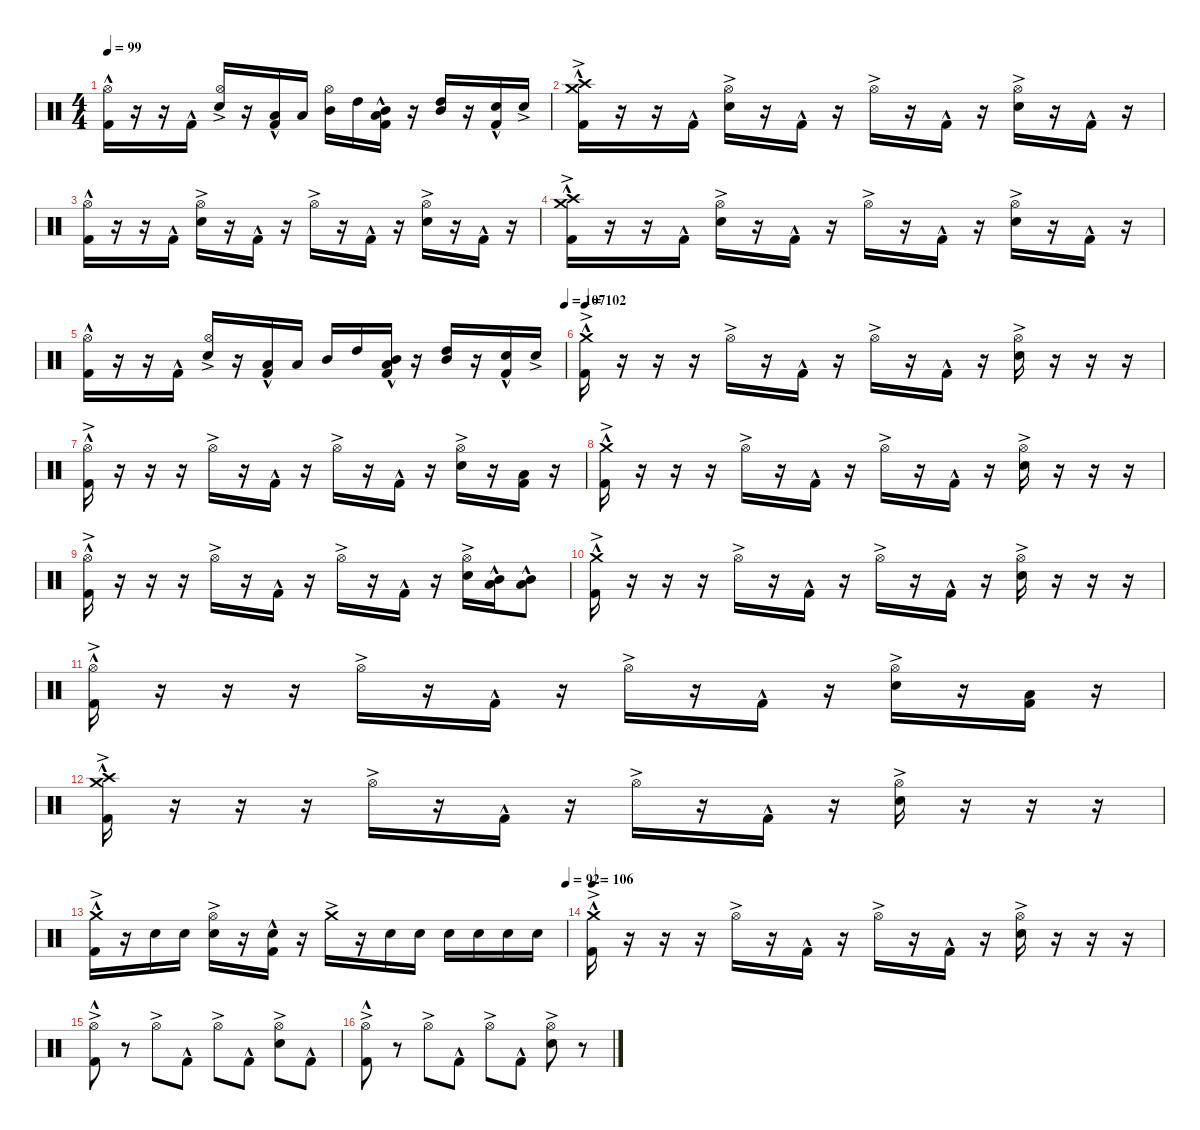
\defaultSystemsLayout 4
\hideDynamics
\bracketExtendMode nobrackets
\singleTrackTrackNamePolicy hidden
\multiTrackTrackNamePolicy hidden
\firstSystemTrackNameMode fullname
\firstSystemTrackNameOrientation horizontal
\otherSystemsTrackNameOrientation horizontal
\track ("Percussion" "drm.") {instrument percussion}
\staff {score}
\articulation defaults
\ts (4 4)
\tempo 99
\clef neutral
\ks c
("Hi-Hat (open)"{hac} "Kick (hit) 2"{hac}).16{dy f beam Down} r.16{beam Down} r.16{beam Down} "Kick (hit) 2"{hac}.16{beam Down} ("Hi-Hat (open)"{ac} "Snare (hit) 2"{ac}).16{beam Up} r.16{beam Up} ("Low Tom (hit)" "Kick (hit) 2"{hac}).16{beam Up} "Low Tom (hit)".16{beam Up} ("Hi-Hat (open)" "Mid Tom (hit)").16{beam Down} "High Tom (hit)".16{beam Down} ("Low Tom (hit)" "Mid Tom (hit)" "Kick (hit) 2"{hac}).16{beam Down} r.16{beam Down} ("High Tom (hit)" "Mid Tom (hit)").16{beam Up} r.16{beam Up} ("Snare (hit) 2" "Kick (hit) 2"{hac}).16{beam Up} "Snare (hit) 2"{ac}.16{beam Up} |
("Crash medium (hit)"{hac} "Crash high (hit)"{ac} "Kick (hit) 2"{hac}).16{beam Down} r.16{beam Down} r.16{beam Down} "Kick (hit) 2"{hac}.16{beam Down} ("Hi-Hat (open)"{ac} "Snare (hit) 2"{ac}).16{beam Down} r.16{beam Down} "Kick (hit) 2"{hac}.16{beam Down} r.16{beam Down} "Hi-Hat (open)"{ac}.16{beam Down} r.16{beam Down} "Kick (hit) 2"{hac}.16{beam Down} r.16{beam Down} ("Hi-Hat (open)"{ac} "Snare (hit) 2"{ac}).16{beam Down} r.16{beam Down} "Kick (hit) 2"{hac}.16{beam Down} r.16{beam Down} |
("Hi-Hat (open)"{hac} "Kick (hit) 2"{hac}).16{beam Down} r.16{beam Down} r.16{beam Down} "Kick (hit) 2"{hac}.16{beam Down} ("Hi-Hat (open)"{ac} "Snare (hit) 2"{ac}).16{beam Down} r.16{beam Down} "Kick (hit) 2"{hac}.16{beam Down} r.16{beam Down} "Hi-Hat (open)"{ac}.16{beam Down} r.16{beam Down} "Kick (hit) 2"{hac}.16{beam Down} r.16{beam Down} ("Hi-Hat (open)"{ac} "Snare (hit) 2"{ac}).16{beam Down} r.16{beam Down} "Kick (hit) 2"{hac}.16{beam Down} r.16{beam Down} |
("Crash medium (hit)"{hac} "Crash high (hit)"{ac} "Kick (hit) 2"{hac}).16{beam Down} r.16{beam Down} r.16{beam Down} "Kick (hit) 2"{hac}.16{beam Down} ("Hi-Hat (open)"{ac} "Snare (hit) 2"{ac}).16{beam Down} r.16{beam Down} "Kick (hit) 2"{hac}.16{beam Down} r.16{beam Down} "Hi-Hat (open)"{ac}.16{beam Down} r.16{beam Down} "Kick (hit) 2"{hac}.16{beam Down} r.16{beam Down} ("Hi-Hat (open)"{ac} "Snare (hit) 2"{ac}).16{beam Down} r.16{beam Down} "Kick (hit) 2"{hac}.16{beam Down} r.16{beam Down} |
\tempo (107 1)
("Hi-Hat (open)"{hac} "Kick (hit) 2"{hac}).16{beam Down} r.16{beam Down} r.16{beam Down} "Kick (hit) 2"{hac}.16{beam Down} ("Hi-Hat (open)"{ac} "Snare (hit) 2"{ac}).16{beam Up} r.16{beam Up} ("Low Tom (hit)" "Kick (hit) 2"{hac}).16{beam Up} "Low Tom (hit)".16{beam Up} "Mid Tom (hit)".16{beam Up} "High Tom (hit)".16{beam Up} ("Low Tom (hit)" "Mid Tom (hit)" "Kick (hit) 2"{hac}).16{beam Up} r.16{beam Up} ("High Tom (hit)" "Mid Tom (hit)").16{beam Up} r.16{beam Up} ("Snare (hit) 2" "Kick (hit) 2"{hac}).16{beam Up} "Snare (hit) 2"{ac}.16{beam Up} |
\tempo 102
("Crash medium (hit)"{hac} "Kick (hit) 2"{ac}).16{beam Down} r.16{beam Down} r.16{beam Down} r.16{beam Down} "Hi-Hat (open)"{ac}.16{beam Down} r.16{beam Down} "Kick (hit) 2"{hac}.16{beam Down} r.16{beam Down} "Hi-Hat (open)"{ac}.16{beam Down} r.16{beam Down} "Kick (hit) 2"{hac}.16{beam Down} r.16{beam Down} ("Hi-Hat (open)"{ac} "Snare (hit) 2"{ac}).16{beam Down} r.16{beam Down} r.16{beam Down} r.16{beam Down} |
("Hi-Hat (open)"{hac} "Kick (hit) 2"{ac}).16{beam Down} r.16{beam Down} r.16{beam Down} r.16{beam Down} "Hi-Hat (open)"{ac}.16{beam Down} r.16{beam Down} "Kick (hit) 2"{hac}.16{beam Down} r.16{beam Down} "Hi-Hat (open)"{ac}.16{beam Down} r.16{beam Down} "Kick (hit) 2"{hac}.16{beam Down} r.16{beam Down} ("Hi-Hat (open)"{ac} "Snare (hit) 2"{ac}).16{beam Down} r.16{beam Down} ("Low Tom (hit)" "Kick (hit) 2").16{beam Down} r.16{beam Down} |
("Crash medium (hit)"{hac} "Kick (hit) 2"{ac}).16{beam Down} r.16{beam Down} r.16{beam Down} r.16{beam Down} "Hi-Hat (open)"{ac}.16{beam Down} r.16{beam Down} "Kick (hit) 2"{hac}.16{beam Down} r.16{beam Down} "Hi-Hat (open)"{ac}.16{beam Down} r.16{beam Down} "Kick (hit) 2"{hac}.16{beam Down} r.16{beam Down} ("Hi-Hat (open)"{ac} "Snare (hit) 2"{ac}).16{beam Down} r.16{beam Down} r.16{beam Down} r.16{beam Down} |
("Hi-Hat (open)"{hac} "Kick (hit) 2"{ac}).16{beam Down} r.16{beam Down} r.16{beam Down} r.16{beam Down} "Hi-Hat (open)"{ac}.16{beam Down} r.16{beam Down} "Kick (hit) 2"{hac}.16{beam Down} r.16{beam Down} "Hi-Hat (open)"{ac}.16{beam Down} r.16{beam Down} "Kick (hit) 2"{hac}.16{beam Down} r.16{beam Down} ("Hi-Hat (open)"{ac} "Snare (hit) 2"{ac}).16{beam Down} ("Low Tom (hit)"{hac} "Mid Tom (hit)"{hac}).16{beam Down} ("Low Tom (hit)"{hac} "Mid Tom (hit)"{hac}).8{beam Down} |
("Crash medium (hit)"{hac} "Kick (hit) 2"{ac}).16{beam Down} r.16{beam Down} r.16{beam Down} r.16{beam Down} "Hi-Hat (open)"{ac}.16{beam Down} r.16{beam Down} "Kick (hit) 2"{hac}.16{beam Down} r.16{beam Down} "Hi-Hat (open)"{ac}.16{beam Down} r.16{beam Down} "Kick (hit) 2"{hac}.16{beam Down} r.16{beam Down} ("Hi-Hat (open)"{ac} "Snare (hit) 2"{ac}).16{beam Down} r.16{beam Down} r.16{beam Down} r.16{beam Down} |
("Hi-Hat (open)"{hac} "Kick (hit) 2"{ac}).16{beam Down} r.16{beam Down} r.16{beam Down} r.16{beam Down} "Hi-Hat (open)"{ac}.16{beam Down} r.16{beam Down} "Kick (hit) 2"{hac}.16{beam Down} r.16{beam Down} "Hi-Hat (open)"{ac}.16{beam Down} r.16{beam Down} "Kick (hit) 2"{hac}.16{beam Down} r.16{beam Down} ("Hi-Hat (open)"{ac} "Snare (hit) 2"{ac}).16{beam Down} r.16{beam Down} ("Low Tom (hit)" "Kick (hit) 2").16{beam Down} r.16{beam Down} |
("Crash medium (hit)"{hac} "Crash high (hit)"{hac} "Kick (hit) 2"{ac}).16{beam Down} r.16{beam Down} r.16{beam Down} r.16{beam Down} "Hi-Hat (open)"{ac}.16{beam Down} r.16{beam Down} "Kick (hit) 2"{hac}.16{beam Down} r.16{beam Down} "Hi-Hat (open)"{ac}.16{beam Down} r.16{beam Down} "Kick (hit) 2"{hac}.16{beam Down} r.16{beam Down} ("Hi-Hat (open)"{ac} "Snare (hit) 2"{ac}).16{beam Down} r.16{beam Down} r.16{beam Down} r.16{beam Down} |
\tempo (92 1)
("Crash medium (hit)"{hac} "Kick (hit) 2"{ac}).16{beam Down} r.16{beam Down} "Snare (hit) 2".16{beam Down} "Snare (hit) 2".16{beam Down} ("Hi-Hat (open)"{ac} "Snare (hit) 2").16{beam Down} r.16{beam Down} ("Snare (hit) 2" "Kick (hit) 2"{hac}).16{beam Down} r.16{beam Down} "Crash medium (hit)"{ac}.16{beam Down} r.16{beam Down} "Snare (hit) 2".16{beam Down} "Snare (hit) 2".16{beam Down} "Snare (hit) 2".16{beam Down} "Snare (hit) 2".16{beam Down} "Snare (hit) 2".16{beam Down} "Snare (hit) 2".16{beam Down} |
\tempo 106
("Crash medium (hit)"{hac} "Kick (hit) 2"{ac}).16{beam Down} r.16{beam Down} r.16{beam Down} r.16{beam Down} "Hi-Hat (open)"{ac}.16{beam Down} r.16{beam Down} "Kick (hit) 2"{hac}.16{beam Down} r.16{beam Down} "Hi-Hat (open)"{ac}.16{beam Down} r.16{beam Down} "Kick (hit) 2"{hac}.16{beam Down} r.16{beam Down} ("Hi-Hat (open)"{ac} "Snare (hit) 2"{ac}).16{beam Down} r.16{beam Down} r.16{beam Down} r.16{beam Down} |
("Hi-Hat (open)"{ac} "Kick (hit) 2"{hac}).8{beam Down} r.8{beam Down} "Hi-Hat (open)"{ac}.8{beam Down} "Kick (hit) 2"{hac}.8{beam Down} "Hi-Hat (open)"{ac}.8{beam Down} "Kick (hit) 2"{hac}.8{beam Down} ("Hi-Hat (open)"{ac} "Snare (hit) 2"{ac}).8{beam Down} "Kick (hit) 2"{hac}.8{beam Down} |
("Hi-Hat (open)"{ac} "Kick (hit) 2"{hac}).8{beam Down} r.8{beam Down} "Hi-Hat (open)"{ac}.8{beam Down} "Kick (hit) 2"{hac}.8{beam Down} "Hi-Hat (open)"{ac}.8{beam Down} "Kick (hit) 2"{hac}.8{beam Down} ("Hi-Hat (open)"{ac} "Snare (hit) 2"{ac}).8{beam Down} r.8{beam Down}
